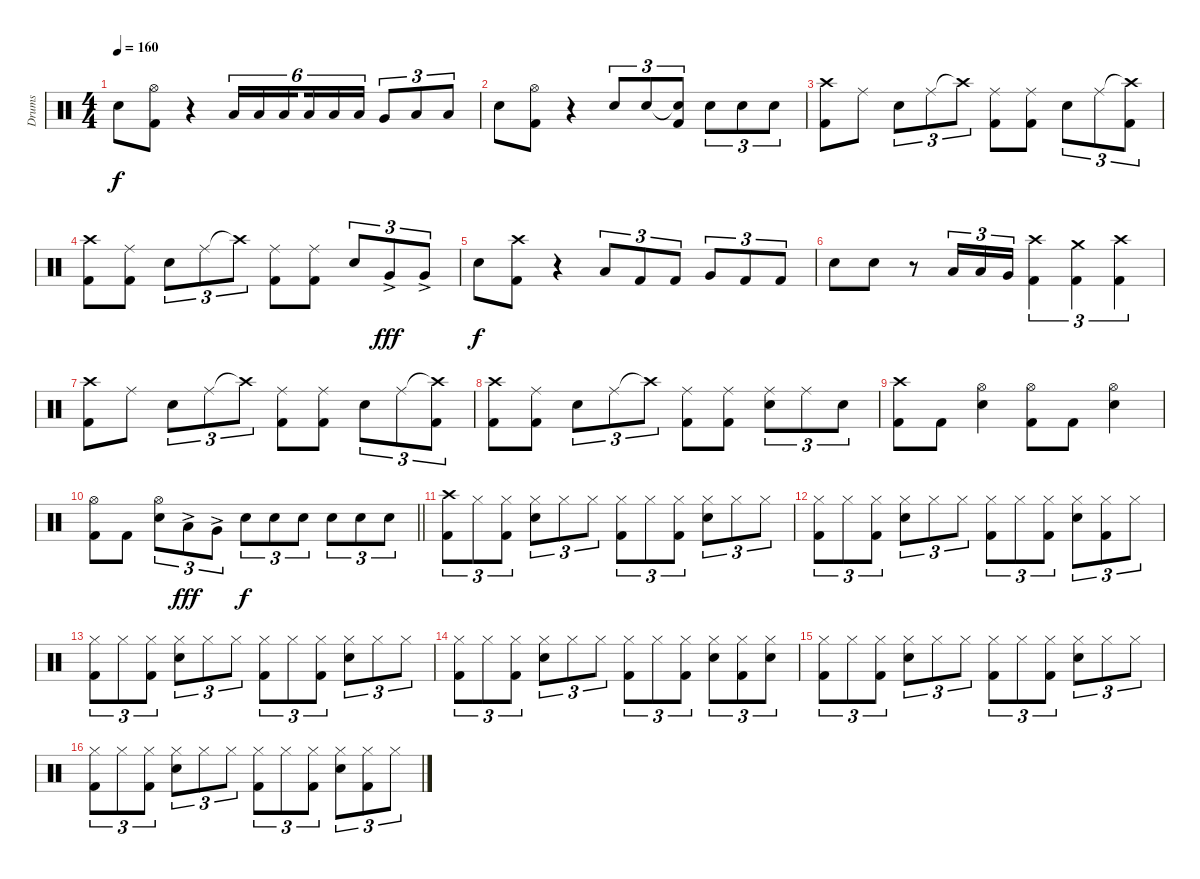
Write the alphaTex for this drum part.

\track ("Drums" "Drums") {instrument percussion}
\staff {score}
\articulation defaults
\ts (4 4)
\tempo 160
\clef neutral
\ks c "Snare (hit) 2".8{dy f}
("Hi-Hat (open)" "Kick (hit) 2").8 r.4 "Low Tom (hit)".16{tu (6 4)} "Low Tom (hit)".16{tu (6 4)} "Low Tom (hit)".16{tu (6 4) beam splitsecondary} "Low Tom (hit)".16{tu (6 4)} "Low Tom (hit)".16{tu (6 4)} "Low Tom (hit)".16{tu (6 4)} "Very Low Tom (hit)".8{tu (3 2)} "Low Floor Tom (hit)".8{tu (3 2)} "Low Floor Tom (hit)".8{tu (3 2)} |
"Snare (hit) 2".8 ("Hi-Hat (open)" "Kick (hit) 2").8 r.4 "Snare (hit) 2".8{tu (3 2)} "Snare (hit) 2".8{tu (3 2)} ("Snare (hit) 2"{t} "Kick (hit) 2").8{tu (3 2)} "Snare (hit) 2".8{tu (3 2)} "Snare (hit) 2".8{tu (3 2)} "Snare (hit) 2".8{tu (3 2)} |
("Crash high (hit)" "Kick (hit) 2").8 "Ride (middle)".8 "Snare (hit) 2".8{tu (3 2)} "Ride (middle)".8{tu (3 2)} "Crash high (hit)"{t}.8{tu (3 2)} ("Ride (middle)" "Kick (hit) 2").8 ("Ride (middle)" "Kick (hit) 2").8 "Snare (hit) 2".8{tu (3 2)} "Ride (middle)".8{tu (3 2)} ("Crash high (hit)"{t} "Kick (hit) 2").8{tu (3 2)} |
("Crash high (hit)" "Kick (hit) 2").8 ("Ride (middle)" "Kick (hit) 2").8 "Snare (hit) 2".8{tu (3 2)} "Ride (middle)".8{tu (3 2)} "Crash high (hit)"{t}.8{tu (3 2)} ("Ride (middle)" "Kick (hit) 2").8 ("Ride (middle)" "Kick (hit) 2").8 "Snare (hit) 2".8{tu (3 2)} "Very Low Tom (hit)"{ac}.8{tu (3 2) dy fff} "Very Low Tom (hit)"{ac}.8{tu (3 2)} |
"Snare (hit) 2".8{dy f} ("Crash high (hit)" "Kick (hit) 2").8 r.4 "Low Tom (hit)".8{tu (3 2)} "Kick (hit) 2".8{tu (3 2)} "Kick (hit) 2".8{tu (3 2)} "Very Low Tom (hit)".8{tu (3 2)} "Kick (hit) 2".8{tu (3 2)} "Kick (hit) 2".8{tu (3 2)} |
"Snare (hit) 2".8 "Snare (hit) 2".8 r.8 "Low Tom (hit)".16{tu (3 2)} "Low Tom (hit)".16{tu (3 2)} "Very Low Tom (hit)".16{tu (3 2)} ("Crash high (hit)" "Kick (hit) 2").4{tu (3 2)} ("Crash medium (hit)" "Kick (hit) 2").4{tu (3 2)} ("Crash high (hit)" "Kick (hit) 2").4{tu (3 2)} |
("Crash high (hit)" "Kick (hit) 2").8 "Ride (middle)".8 "Snare (hit) 2".8{tu (3 2)} "Ride (middle)".8{tu (3 2)} "Crash high (hit)"{t}.8{tu (3 2)} ("Ride (middle)" "Kick (hit) 2").8 ("Ride (middle)" "Kick (hit) 2").8 "Snare (hit) 2".8{tu (3 2)} "Ride (middle)".8{tu (3 2)} ("Crash high (hit)"{t} "Kick (hit) 2").8{tu (3 2)} |
("Crash high (hit)" "Kick (hit) 2").8 ("Ride (middle)" "Kick (hit) 2").8 "Snare (hit) 2".8{tu (3 2)} "Ride (middle)".8{tu (3 2)} "Crash high (hit)"{t}.8{tu (3 2)} ("Ride (middle)" "Kick (hit) 2").8 ("Ride (middle)" "Kick (hit) 2").8 ("Ride (middle)" "Snare (hit) 2").8{tu (3 2)} "Ride (middle)".8{tu (3 2)} "Snare (hit) 2".8{tu (3 2)} |
("Crash high (hit)" "Kick (hit) 2").8 "Kick (hit) 2".8 ("Hi-Hat (open)" "Snare (hit) 2").4 ("Hi-Hat (open)" "Kick (hit) 2").8 "Kick (hit) 2".8 ("Hi-Hat (open)" "Snare (hit) 2").4 |
\barLineRight lightlight
("Hi-Hat (open)" "Kick (hit) 2").8 "Kick (hit) 2".8 ("Hi-Hat (open)" "Snare (hit) 2").8{tu (3 2)} "Low Tom (hit)"{ac}.8{tu (3 2) dy fff} "Very Low Tom (hit)"{ac}.8{tu (3 2)} "Snare (hit) 2".8{tu (3 2) dy f} "Snare (hit) 2".8{tu (3 2)} "Snare (hit) 2".8{tu (3 2)} "Snare (hit) 2".8{tu (3 2)} "Snare (hit) 2".8{tu (3 2)} "Snare (hit) 2".8{tu (3 2)} |
("Crash high (hit)" "Kick (hit) 2").8{tu (3 2)} "Hi-Hat (closed)".8{tu (3 2)} ("Hi-Hat (closed)" "Kick (hit) 2").8{tu (3 2)} ("Hi-Hat (closed)" "Snare (hit) 2").8{tu (3 2)} "Hi-Hat (closed)".8{tu (3 2)} "Hi-Hat (closed)".8{tu (3 2)} ("Hi-Hat (closed)" "Kick (hit) 2").8{tu (3 2)} "Hi-Hat (closed)".8{tu (3 2)} ("Hi-Hat (closed)" "Kick (hit) 2").8{tu (3 2)} ("Hi-Hat (closed)" "Snare (hit) 2").8{tu (3 2)} "Hi-Hat (closed)".8{tu (3 2)} "Hi-Hat (closed)".8{tu (3 2)} |
("Hi-Hat (closed)" "Kick (hit) 2").8{tu (3 2)} "Hi-Hat (closed)".8{tu (3 2)} ("Hi-Hat (closed)" "Kick (hit) 2").8{tu (3 2)} ("Hi-Hat (closed)" "Snare (hit) 2").8{tu (3 2)} "Hi-Hat (closed)".8{tu (3 2)} "Hi-Hat (closed)".8{tu (3 2)} ("Hi-Hat (closed)" "Kick (hit) 2").8{tu (3 2)} "Hi-Hat (closed)".8{tu (3 2)} ("Hi-Hat (closed)" "Kick (hit) 2").8{tu (3 2)} ("Hi-Hat (closed)" "Snare (hit) 2").8{tu (3 2)} ("Hi-Hat (closed)" "Kick (hit) 2").8{tu (3 2)} "Hi-Hat (closed)".8{tu (3 2)} |
("Hi-Hat (closed)" "Kick (hit) 2").8{tu (3 2)} "Hi-Hat (closed)".8{tu (3 2)} ("Hi-Hat (closed)" "Kick (hit) 2").8{tu (3 2)} ("Hi-Hat (closed)" "Snare (hit) 2").8{tu (3 2)} "Hi-Hat (closed)".8{tu (3 2)} "Hi-Hat (closed)".8{tu (3 2)} ("Hi-Hat (closed)" "Kick (hit) 2").8{tu (3 2)} "Hi-Hat (closed)".8{tu (3 2)} ("Hi-Hat (closed)" "Kick (hit) 2").8{tu (3 2)} ("Hi-Hat (closed)" "Snare (hit) 2").8{tu (3 2)} "Hi-Hat (closed)".8{tu (3 2)} "Hi-Hat (closed)".8{tu (3 2)} |
("Hi-Hat (closed)" "Kick (hit) 2").8{tu (3 2)} "Hi-Hat (closed)".8{tu (3 2)} ("Hi-Hat (closed)" "Kick (hit) 2").8{tu (3 2)} ("Hi-Hat (closed)" "Snare (hit) 2").8{tu (3 2)} "Hi-Hat (closed)".8{tu (3 2)} "Hi-Hat (closed)".8{tu (3 2)} ("Hi-Hat (closed)" "Kick (hit) 2").8{tu (3 2)} "Hi-Hat (closed)".8{tu (3 2)} ("Hi-Hat (closed)" "Kick (hit) 2").8{tu (3 2)} ("Hi-Hat (closed)" "Snare (hit) 2").8{tu (3 2)} ("Hi-Hat (closed)" "Kick (hit) 2").8{tu (3 2)} ("Hi-Hat (closed)" "Snare (hit) 2").8{tu (3 2)} |
("Hi-Hat (closed)" "Kick (hit) 2").8{tu (3 2)} "Hi-Hat (closed)".8{tu (3 2)} ("Hi-Hat (closed)" "Kick (hit) 2").8{tu (3 2)} ("Hi-Hat (closed)" "Snare (hit) 2").8{tu (3 2)} "Hi-Hat (closed)".8{tu (3 2)} "Hi-Hat (closed)".8{tu (3 2)} ("Hi-Hat (closed)" "Kick (hit) 2").8{tu (3 2)} "Hi-Hat (closed)".8{tu (3 2)} ("Hi-Hat (closed)" "Kick (hit) 2").8{tu (3 2)} ("Hi-Hat (closed)" "Snare (hit) 2").8{tu (3 2)} "Hi-Hat (closed)".8{tu (3 2)} "Hi-Hat (closed)".8{tu (3 2)} |
("Hi-Hat (closed)" "Kick (hit) 2").8{tu (3 2)} "Hi-Hat (closed)".8{tu (3 2)} ("Hi-Hat (closed)" "Kick (hit) 2").8{tu (3 2)} ("Hi-Hat (closed)" "Snare (hit) 2").8{tu (3 2)} "Hi-Hat (closed)".8{tu (3 2)} "Hi-Hat (closed)".8{tu (3 2)} ("Hi-Hat (closed)" "Kick (hit) 2").8{tu (3 2)} "Hi-Hat (closed)".8{tu (3 2)} ("Hi-Hat (closed)" "Kick (hit) 2").8{tu (3 2)} ("Hi-Hat (closed)" "Snare (hit) 2").8{tu (3 2)} ("Hi-Hat (closed)" "Kick (hit) 2").8{tu (3 2)} "Hi-Hat (closed)".8{tu (3 2)}
